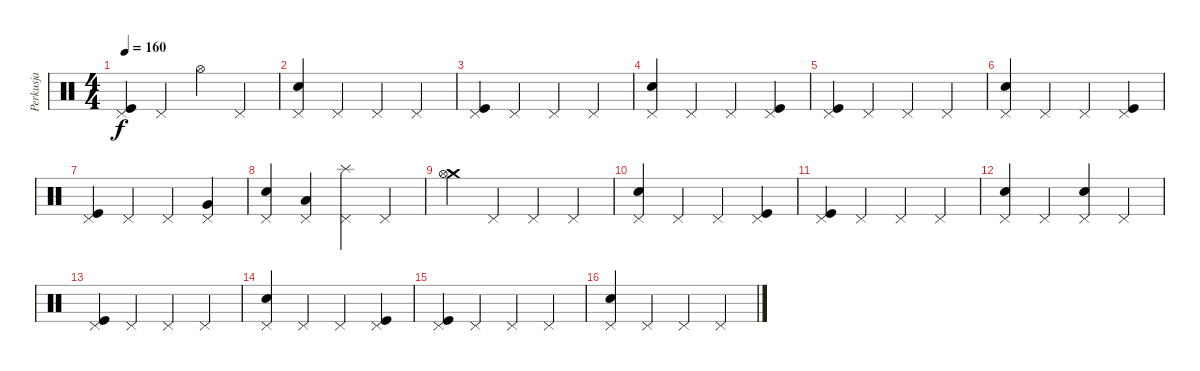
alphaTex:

\track ("Perkusja" "Perkusja") {instrument percussion}
\staff {score}
\articulation defaults
\ts (4 4)
\tempo 160
\clef neutral
\ks c
("Kick (hit)" "Pedal Hi-Hat (hit)").4{dy f} "Pedal Hi-Hat (hit)".4 "Hi-Hat (open)".4 "Pedal Hi-Hat (hit)".4 |
("Snare (hit) 2" "Pedal Hi-Hat (hit)").4 "Pedal Hi-Hat (hit)".4 "Pedal Hi-Hat (hit)".4 "Pedal Hi-Hat (hit)".4 |
("Kick (hit)" "Pedal Hi-Hat (hit)").4 "Pedal Hi-Hat (hit)".4 "Pedal Hi-Hat (hit)".4 "Pedal Hi-Hat (hit)".4 |
("Snare (hit) 2" "Pedal Hi-Hat (hit)").4 "Pedal Hi-Hat (hit)".4 "Pedal Hi-Hat (hit)".4 ("Kick (hit)" "Pedal Hi-Hat (hit)").4 |
("Kick (hit)" "Pedal Hi-Hat (hit)").4 "Pedal Hi-Hat (hit)".4 "Pedal Hi-Hat (hit)".4 "Pedal Hi-Hat (hit)".4 |
("Snare (hit) 2" "Pedal Hi-Hat (hit)").4 "Pedal Hi-Hat (hit)".4 "Pedal Hi-Hat (hit)".4 ("Kick (hit)" "Pedal Hi-Hat (hit)").4 |
("Kick (hit)" "Pedal Hi-Hat (hit)").4 "Pedal Hi-Hat (hit)".4 "Pedal Hi-Hat (hit)".4 ("Very Low Tom (hit)" "Pedal Hi-Hat (hit)").4 |
("Snare (hit) 2" "Pedal Hi-Hat (hit)").4 ("Low Floor Tom (hit)" "Pedal Hi-Hat (hit)").4 ("Splash (hit)" "Pedal Hi-Hat (hit)").4 "Pedal Hi-Hat (hit)".4 |
("Crash medium (hit)" "Hi-Hat (open)").4 "Pedal Hi-Hat (hit)".4 "Pedal Hi-Hat (hit)".4 "Pedal Hi-Hat (hit)".4 |
("Snare (hit) 2" "Pedal Hi-Hat (hit)").4 "Pedal Hi-Hat (hit)".4 "Pedal Hi-Hat (hit)".4 ("Kick (hit)" "Pedal Hi-Hat (hit)").4 |
("Kick (hit)" "Pedal Hi-Hat (hit)").4 "Pedal Hi-Hat (hit)".4 "Pedal Hi-Hat (hit)".4 "Pedal Hi-Hat (hit)".4 |
("Snare (hit) 2" "Pedal Hi-Hat (hit)").4 "Pedal Hi-Hat (hit)".4 ("Electric Snare (hit)" "Pedal Hi-Hat (hit)").4 "Pedal Hi-Hat (hit)".4 |
("Kick (hit)" "Pedal Hi-Hat (hit)").4 "Pedal Hi-Hat (hit)".4 "Pedal Hi-Hat (hit)".4 "Pedal Hi-Hat (hit)".4 |
("Snare (hit) 2" "Pedal Hi-Hat (hit)").4 "Pedal Hi-Hat (hit)".4 "Pedal Hi-Hat (hit)".4 ("Kick (hit)" "Pedal Hi-Hat (hit)").4 |
("Kick (hit)" "Pedal Hi-Hat (hit)").4 "Pedal Hi-Hat (hit)".4 "Pedal Hi-Hat (hit)".4 "Pedal Hi-Hat (hit)".4 |
("Snare (hit) 2" "Pedal Hi-Hat (hit)").4 "Pedal Hi-Hat (hit)".4 "Pedal Hi-Hat (hit)".4 "Pedal Hi-Hat (hit)".4
